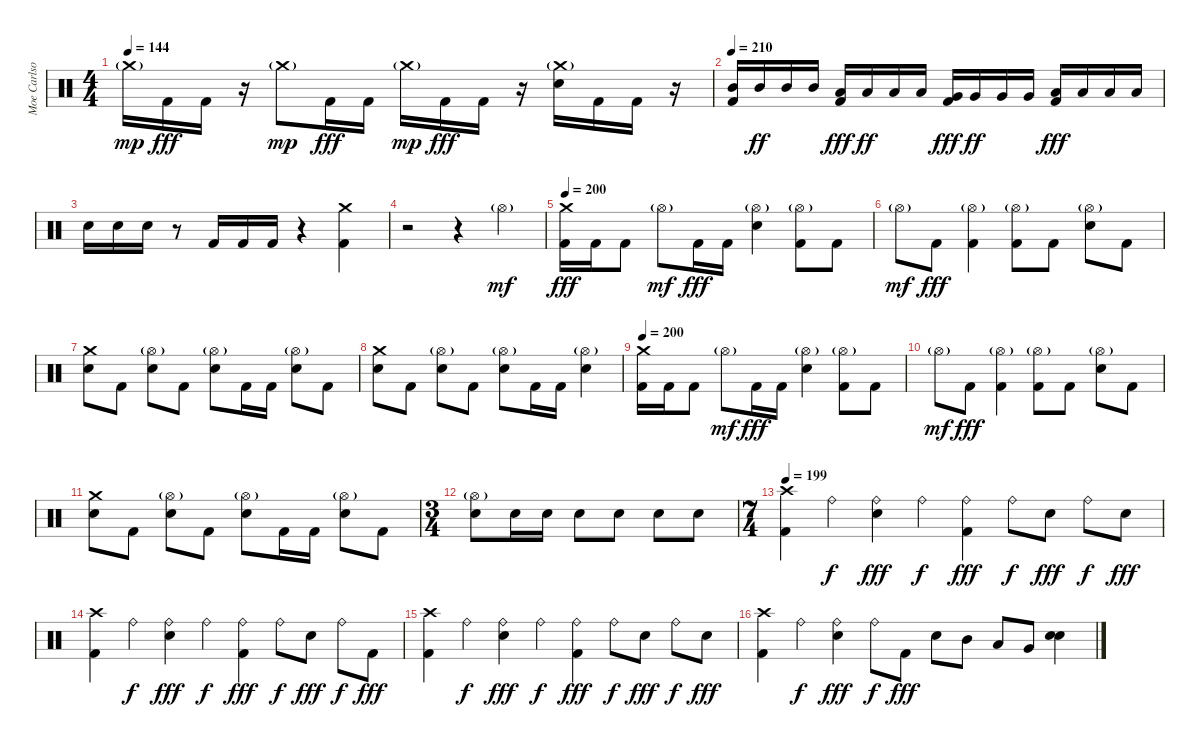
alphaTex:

\track ("Moe Carlson" "Moe Carlso") {instrument percussion}
\staff {score}
\articulation defaults
\ts (4 4)
\tempo 144
\clef neutral
\ks c "Crash medium (hit)"{g}.16{dy mp} "Kick (hit) 2".16{dy fff} "Kick (hit) 2".16
r.16 "Crash medium (hit)"{g}.8{dy mp} "Kick (hit) 2".16{dy fff} "Kick (hit) 2".16 "Crash medium (hit)"{g}.16{dy mp} "Kick (hit) 2".16{dy fff} "Kick (hit) 2".16 r.16 ("Crash medium (hit)"{g} "Electric Snare (hit)").16 "Kick (hit) 2".16 "Kick (hit) 2".16 r.16 |
\tempo 210
("Mid Tom (hit)" "Kick (hit) 2").16 "Mid Tom (hit)".16{dy ff} "Mid Tom (hit)".16 "Mid Tom (hit)".16 ("Low Tom (hit)" "Kick (hit) 2").16{dy fff} "Low Tom (hit)".16{dy ff} "Low Tom (hit)".16 "Low Tom (hit)".16 ("Very Low Tom (hit)" "Kick (hit) 2").16{dy fff} "Very Low Tom (hit)".16{dy ff} "Very Low Tom (hit)".16 "Very Low Tom (hit)".16 ("Low Floor Tom (hit)" "Kick (hit) 2").16{dy fff} "Low Floor Tom (hit)".16 "Low Floor Tom (hit)".16 "Low Floor Tom (hit)".16 |
"Electric Snare (hit)".16 "Electric Snare (hit)".16 "Electric Snare (hit)".16 r.8 "Kick (hit) 2".16 "Kick (hit) 2".16 "Kick (hit) 2".16 r.4 ("Crash medium (hit)" "Kick (hit) 2").4 |
r.2 r.4 "Hi-Hat (open)"{g}.4{dy mf} |
\tempo 200
("Crash medium (hit)" "Kick (hit) 2").16{dy fff} "Kick (hit) 2".16 "Kick (hit) 2".8 "Hi-Hat (open)"{g}.8{dy mf} "Kick (hit) 2".16{dy fff} "Kick (hit) 2".16 ("Hi-Hat (open)"{g} "Electric Snare (hit)").4 ("Hi-Hat (open)"{g} "Kick (hit) 2").8 "Kick (hit) 2".8 |
"Hi-Hat (open)"{g}.8{dy mf} "Kick (hit) 2".8{dy fff} ("Hi-Hat (open)"{g} "Kick (hit) 2").4 ("Hi-Hat (open)"{g} "Kick (hit) 2").8 "Kick (hit) 2".8 ("Hi-Hat (open)"{g} "Electric Snare (hit)").8 "Kick (hit) 2".8 |
("Crash medium (hit)" "Electric Snare (hit)").8 "Kick (hit) 2".8 ("Hi-Hat (open)"{g} "Electric Snare (hit)").8 "Kick (hit) 2".8 ("Hi-Hat (open)"{g} "Electric Snare (hit)").8 "Kick (hit) 2".16 "Kick (hit) 2".16 ("Hi-Hat (open)"{g} "Electric Snare (hit)").8 "Kick (hit) 2".8 |
("Crash medium (hit)" "Electric Snare (hit)").8 "Kick (hit) 2".8 ("Hi-Hat (open)"{g} "Electric Snare (hit)").8 "Kick (hit) 2".8 ("Hi-Hat (open)"{g} "Electric Snare (hit)").8 "Kick (hit) 2".16 "Kick (hit) 2".16 ("Hi-Hat (open)"{g} "Electric Snare (hit)").4 |
\tempo 200
("Crash medium (hit)" "Kick (hit) 2").16 "Kick (hit) 2".16 "Kick (hit) 2".8 "Hi-Hat (open)"{g}.8{dy mf} "Kick (hit) 2".16{dy fff} "Kick (hit) 2".16 ("Hi-Hat (open)"{g} "Electric Snare (hit)").4 ("Hi-Hat (open)"{g} "Kick (hit) 2").8 "Kick (hit) 2".8 |
"Hi-Hat (open)"{g}.8{dy mf} "Kick (hit) 2".8{dy fff} ("Hi-Hat (open)"{g} "Kick (hit) 2").4 ("Hi-Hat (open)"{g} "Kick (hit) 2").8 "Kick (hit) 2".8 ("Hi-Hat (open)"{g} "Electric Snare (hit)").8 "Kick (hit) 2".8 |
("Crash medium (hit)" "Electric Snare (hit)").8 "Kick (hit) 2".8 ("Hi-Hat (open)"{g} "Electric Snare (hit)").8 "Kick (hit) 2".8 ("Hi-Hat (open)"{g} "Electric Snare (hit)").8 "Kick (hit) 2".16 "Kick (hit) 2".16 ("Hi-Hat (open)"{g} "Electric Snare (hit)").8 "Kick (hit) 2".8 |
\ts (3 4)
("Hi-Hat (open)"{g} "Electric Snare (hit)").8 "Electric Snare (hit)".16 "Electric Snare (hit)".16 "Electric Snare (hit)".8 "Electric Snare (hit)".8 "Electric Snare (hit)".8 "Electric Snare (hit)".8 |
\ts (7 4)
\tempo 199
("Crash high (hit)" "Kick (hit) 2").4 "Ride (bell)".4{dy f} ("Ride (bell)" "Electric Snare (hit)").4{dy fff} "Ride (bell)".4{dy f} ("Ride (bell)" "Kick (hit) 2").4{dy fff} "Ride (bell)".8{dy f} "Electric Snare (hit)".8{dy fff} "Ride (bell)".8{dy f} "Electric Snare (hit)".8{dy fff} |
("Crash high (hit)" "Kick (hit) 2").4 "Ride (bell)".4{dy f} ("Ride (bell)" "Electric Snare (hit)").4{dy fff} "Ride (bell)".4{dy f} ("Ride (bell)" "Kick (hit) 2").4{dy fff} "Ride (bell)".8{dy f} "Electric Snare (hit)".8{dy fff} "Ride (bell)".8{dy f} "Kick (hit) 2".8{dy fff} |
("Crash high (hit)" "Kick (hit) 2").4 "Ride (bell)".4{dy f} ("Ride (bell)" "Electric Snare (hit)").4{dy fff} "Ride (bell)".4{dy f} ("Ride (bell)" "Kick (hit) 2").4{dy fff} "Ride (bell)".8{dy f} "Electric Snare (hit)".8{dy fff} "Ride (bell)".8{dy f} "Electric Snare (hit)".8{dy fff} |
("Crash high (hit)" "Kick (hit) 2").4 "Ride (bell)".4{dy f} ("Ride (bell)" "Electric Snare (hit)").4{dy fff} "Ride (bell)".8{dy f} "Kick (hit) 2".8{dy fff} "Electric Snare (hit)".8 "Mid Tom (hit)".8 "Low Tom (hit)".8 "Very Low Tom (hit)".8 ("Electric Snare (hit)" "Electric Snare (hit)").4
